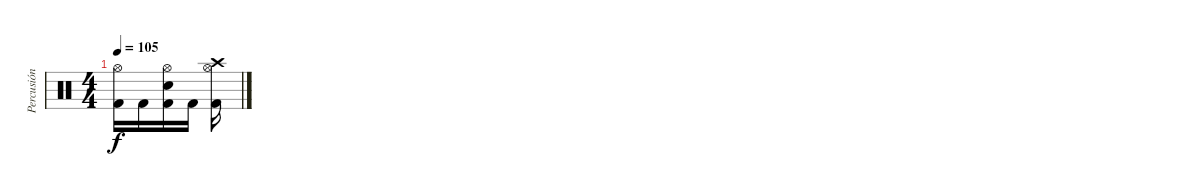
\track ("Percusión" "Percusión") {instrument percussion}
\staff {score}
\articulation defaults
\ts (4 4)
\tempo 105
\clef neutral
\ks c
("Hi-Hat (open)" "Kick (hit) 2").16{dy f} "Kick (hit) 2".16 ("Hi-Hat (open)" "Snare (hit) 2" "Kick (hit) 2").16 "Kick (hit) 2".16 ("Crash high (hit)" "Hi-Hat (open)" "Kick (hit) 2").16
